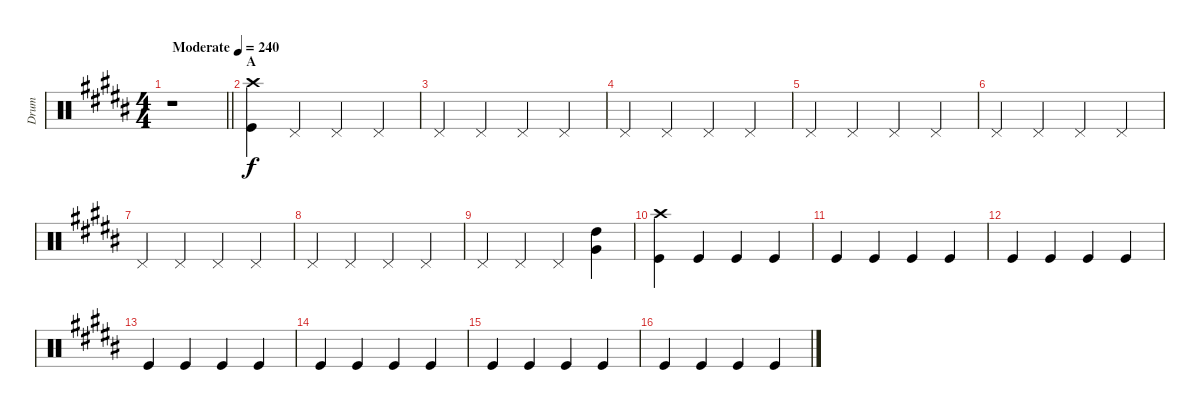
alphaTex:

\track ("Drum" "Drum") {instrument percussion}
\staff {score}
\articulation defaults
\ts (4 4)
\tempo (240 "Moderate")
\clef neutral
\barLineRight lightlight
\ks b
r.1{dy f} |
\section ("" "A")
("Kick (hit)" "Crash high (hit)").4 "Pedal Hi-Hat (hit)".4 "Pedal Hi-Hat (hit)".4 "Pedal Hi-Hat (hit)".4 |
"Pedal Hi-Hat (hit)".4 "Pedal Hi-Hat (hit)".4 "Pedal Hi-Hat (hit)".4 "Pedal Hi-Hat (hit)".4 |
"Pedal Hi-Hat (hit)".4 "Pedal Hi-Hat (hit)".4 "Pedal Hi-Hat (hit)".4 "Pedal Hi-Hat (hit)".4 |
"Pedal Hi-Hat (hit)".4 "Pedal Hi-Hat (hit)".4 "Pedal Hi-Hat (hit)".4 "Pedal Hi-Hat (hit)".4 |
"Pedal Hi-Hat (hit)".4 "Pedal Hi-Hat (hit)".4 "Pedal Hi-Hat (hit)".4 "Pedal Hi-Hat (hit)".4 |
"Pedal Hi-Hat (hit)".4 "Pedal Hi-Hat (hit)".4 "Pedal Hi-Hat (hit)".4 "Pedal Hi-Hat (hit)".4 |
"Pedal Hi-Hat (hit)".4 "Pedal Hi-Hat (hit)".4 "Pedal Hi-Hat (hit)".4 "Pedal Hi-Hat (hit)".4 |
"Pedal Hi-Hat (hit)".4 "Pedal Hi-Hat (hit)".4 "Pedal Hi-Hat (hit)".4 ("High Tom (hit)" "Very Low Tom (hit)").4 |
("Kick (hit)" "Crash high (hit)").4 "Kick (hit)".4 "Kick (hit)".4 "Kick (hit)".4 |
"Kick (hit)".4 "Kick (hit)".4 "Kick (hit)".4 "Kick (hit)".4 |
"Kick (hit)".4 "Kick (hit)".4 "Kick (hit)".4 "Kick (hit)".4 |
"Kick (hit)".4 "Kick (hit)".4 "Kick (hit)".4 "Kick (hit)".4 |
"Kick (hit)".4 "Kick (hit)".4 "Kick (hit)".4 "Kick (hit)".4 |
"Kick (hit)".4 "Kick (hit)".4 "Kick (hit)".4 "Kick (hit)".4 |
"Kick (hit)".4 "Kick (hit)".4 "Kick (hit)".4 "Kick (hit)".4
